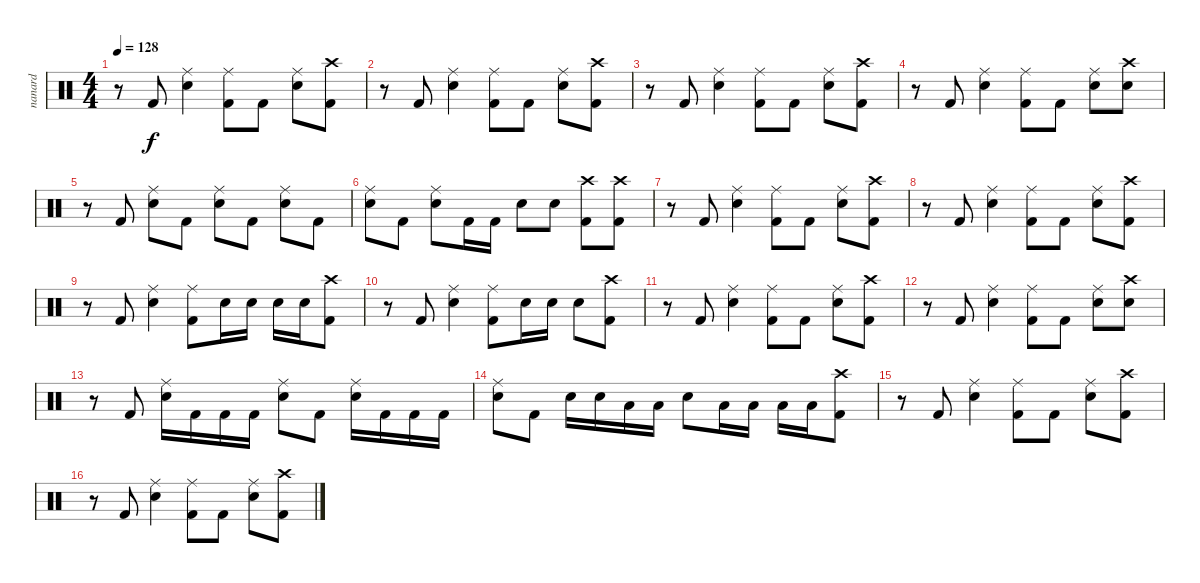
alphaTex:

\track ("nanard" "nanard") {instrument percussion}
\staff {score}
\articulation defaults
\ts (4 4)
\tempo 128
\clef neutral
\ks c
r.8{dy f} "Kick (hit) 2".8 ("Ride (middle)" "Electric Snare (hit)").4 ("Ride (middle)" "Kick (hit) 2").8 "Kick (hit) 2".8 ("Ride (middle)" "Electric Snare (hit)").8 ("Crash high (hit)" "Kick (hit) 2").8 |
r.8 "Kick (hit) 2".8 ("Ride (middle)" "Electric Snare (hit)").4 ("Ride (middle)" "Kick (hit) 2").8 "Kick (hit) 2".8 ("Ride (middle)" "Electric Snare (hit)").8 ("Crash high (hit)" "Kick (hit) 2").8 |
r.8 "Kick (hit) 2".8 ("Ride (middle)" "Electric Snare (hit)").4 ("Ride (middle)" "Kick (hit) 2").8 "Kick (hit) 2".8 ("Ride (middle)" "Electric Snare (hit)").8 ("Crash high (hit)" "Kick (hit) 2").8 |
r.8 "Kick (hit) 2".8 ("Ride (middle)" "Electric Snare (hit)").4 ("Ride (middle)" "Kick (hit) 2").8 "Kick (hit) 2".8 ("Ride (middle)" "Electric Snare (hit)").8 ("Crash high (hit)" "Electric Snare (hit)").8 |
r.8 "Kick (hit) 2".8 ("Ride (middle)" "Electric Snare (hit)").8 "Kick (hit) 2".8 ("Ride (middle)" "Electric Snare (hit)").8 "Kick (hit) 2".8 ("Ride (middle)" "Electric Snare (hit)").8 "Kick (hit) 2".8 |
("Ride (middle)" "Electric Snare (hit)").8 "Kick (hit) 2".8 ("Ride (middle)" "Electric Snare (hit)").8 "Kick (hit) 2".16 "Kick (hit) 2".16 "Electric Snare (hit)".8 "Electric Snare (hit)".8 ("Crash high (hit)" "Kick (hit) 2").8 ("Crash high (hit)" "Kick (hit) 2").8 |
r.8 "Kick (hit) 2".8 ("Ride (middle)" "Electric Snare (hit)").4 ("Ride (middle)" "Kick (hit) 2").8 "Kick (hit) 2".8 ("Ride (middle)" "Electric Snare (hit)").8 ("Crash high (hit)" "Kick (hit) 2").8 |
r.8 "Kick (hit) 2".8 ("Ride (middle)" "Electric Snare (hit)").4 ("Ride (middle)" "Kick (hit) 2").8 "Kick (hit) 2".8 ("Ride (middle)" "Electric Snare (hit)").8 ("Crash high (hit)" "Kick (hit) 2").8 |
r.8 "Kick (hit) 2".8 ("Ride (middle)" "Electric Snare (hit)").4 ("Ride (middle)" "Kick (hit) 2").8 "Electric Snare (hit)".16 "Electric Snare (hit)".16 "Electric Snare (hit)".16 "Electric Snare (hit)".16 ("Crash high (hit)" "Kick (hit) 2").8 |
r.8 "Kick (hit) 2".8 ("Ride (middle)" "Electric Snare (hit)").4 ("Ride (middle)" "Kick (hit) 2").8 "Electric Snare (hit)".16 "Electric Snare (hit)".16 "Electric Snare (hit)".8 ("Crash high (hit)" "Kick (hit) 2").8 |
r.8 "Kick (hit) 2".8 ("Ride (middle)" "Electric Snare (hit)").4 ("Ride (middle)" "Kick (hit) 2").8 "Kick (hit) 2".8 ("Ride (middle)" "Electric Snare (hit)").8 ("Crash high (hit)" "Kick (hit) 2").8 |
r.8 "Kick (hit) 2".8 ("Ride (middle)" "Electric Snare (hit)").4 ("Ride (middle)" "Kick (hit) 2").8 "Kick (hit) 2".8 ("Ride (middle)" "Electric Snare (hit)").8 ("Crash high (hit)" "Electric Snare (hit)").8 |
r.8 "Kick (hit) 2".8 ("Ride (middle)" "Electric Snare (hit)").16 "Kick (hit) 2".16 "Kick (hit) 2".16 "Kick (hit) 2".16 ("Ride (middle)" "Electric Snare (hit)").8 "Kick (hit) 2".8 ("Ride (middle)" "Electric Snare (hit)").16 "Kick (hit) 2".16 "Kick (hit) 2".16 "Kick (hit) 2".16 |
("Ride (middle)" "Electric Snare (hit)").8 "Kick (hit) 2".8 "Electric Snare (hit)".16 "Electric Snare (hit)".16 "Low Tom (hit)".16 "Low Tom (hit)".16 "Electric Snare (hit)".8 "Low Tom (hit)".16 "Low Tom (hit)".16 "Low Floor Tom (hit)".16 "Low Floor Tom (hit)".16 ("Crash high (hit)" "Kick (hit) 2").8 |
r.8 "Kick (hit) 2".8 ("Ride (middle)" "Electric Snare (hit)").4 ("Ride (middle)" "Kick (hit) 2").8 "Kick (hit) 2".8 ("Ride (middle)" "Electric Snare (hit)").8 ("Crash high (hit)" "Kick (hit) 2").8 |
r.8 "Kick (hit) 2".8 ("Ride (middle)" "Electric Snare (hit)").4 ("Ride (middle)" "Kick (hit) 2").8 "Kick (hit) 2".8 ("Ride (middle)" "Electric Snare (hit)").8 ("Crash high (hit)" "Kick (hit) 2").8
